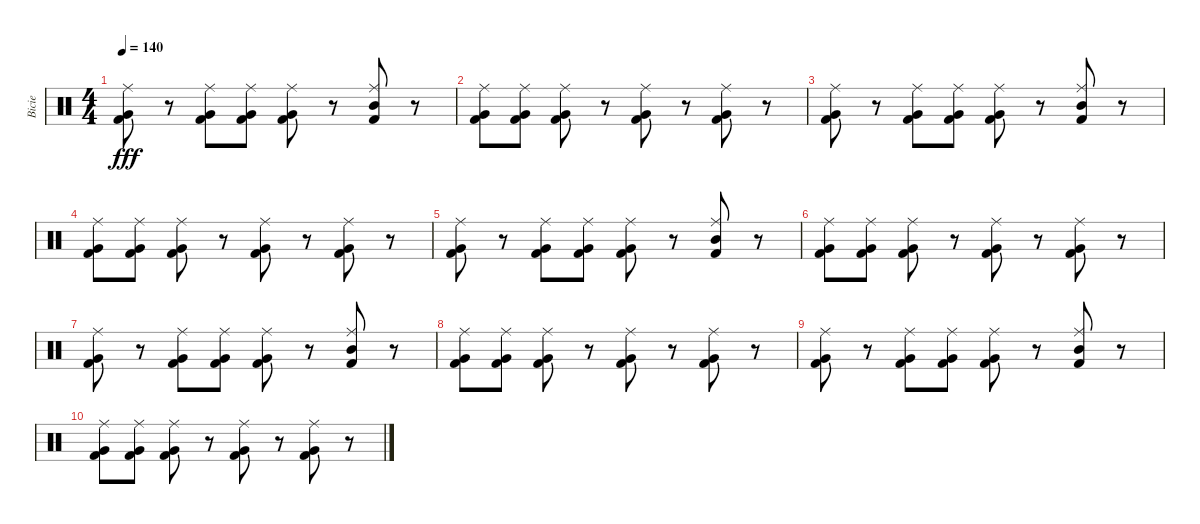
\track ("Bicie" "Bicie") {instrument percussion}
\staff {score}
\articulation defaults
\ts (4 4)
\tempo 140
\clef neutral
\ks c
("Very Low Tom (hit)" "Kick (hit) 2" "Ride (middle)").8{dy fff} r.8 ("Very Low Tom (hit)" "Kick (hit) 2" "Ride (middle)").8 ("Very Low Tom (hit)" "Kick (hit) 2" "Ride (middle)").8 ("Very Low Tom (hit)" "Kick (hit) 2" "Ride (middle)").8 r.8 ("Mid Tom (hit)" "Kick (hit) 2" "Ride (middle)").8 r.8 |
("Very Low Tom (hit)" "Kick (hit) 2" "Ride (middle)").8 ("Very Low Tom (hit)" "Kick (hit) 2" "Ride (middle)").8 ("Very Low Tom (hit)" "Kick (hit) 2" "Ride (middle)").8 r.8 ("Very Low Tom (hit)" "Kick (hit) 2" "Ride (middle)").8 r.8 ("Very Low Tom (hit)" "Kick (hit) 2" "Ride (middle)").8 r.8 |
("Very Low Tom (hit)" "Kick (hit) 2" "Ride (middle)").8 r.8 ("Very Low Tom (hit)" "Kick (hit) 2" "Ride (middle)").8 ("Very Low Tom (hit)" "Kick (hit) 2" "Ride (middle)").8 ("Very Low Tom (hit)" "Kick (hit) 2" "Ride (middle)").8 r.8 ("Mid Tom (hit)" "Kick (hit) 2" "Ride (middle)").8 r.8 |
("Very Low Tom (hit)" "Kick (hit) 2" "Ride (middle)").8 ("Very Low Tom (hit)" "Kick (hit) 2" "Ride (middle)").8 ("Very Low Tom (hit)" "Kick (hit) 2" "Ride (middle)").8 r.8 ("Very Low Tom (hit)" "Kick (hit) 2" "Ride (middle)").8 r.8 ("Very Low Tom (hit)" "Kick (hit) 2" "Ride (middle)").8 r.8 |
("Very Low Tom (hit)" "Kick (hit) 2" "Ride (middle)").8 r.8 ("Very Low Tom (hit)" "Kick (hit) 2" "Ride (middle)").8 ("Very Low Tom (hit)" "Kick (hit) 2" "Ride (middle)").8 ("Very Low Tom (hit)" "Kick (hit) 2" "Ride (middle)").8 r.8 ("Mid Tom (hit)" "Kick (hit) 2" "Ride (middle)").8 r.8 |
("Very Low Tom (hit)" "Kick (hit) 2" "Ride (middle)").8 ("Very Low Tom (hit)" "Kick (hit) 2" "Ride (middle)").8 ("Very Low Tom (hit)" "Kick (hit) 2" "Ride (middle)").8 r.8 ("Very Low Tom (hit)" "Kick (hit) 2" "Ride (middle)").8 r.8 ("Very Low Tom (hit)" "Kick (hit) 2" "Ride (middle)").8 r.8 |
("Very Low Tom (hit)" "Kick (hit) 2" "Ride (middle)").8 r.8 ("Very Low Tom (hit)" "Kick (hit) 2" "Ride (middle)").8 ("Very Low Tom (hit)" "Kick (hit) 2" "Ride (middle)").8 ("Very Low Tom (hit)" "Kick (hit) 2" "Ride (middle)").8 r.8 ("Mid Tom (hit)" "Kick (hit) 2" "Ride (middle)").8 r.8 |
("Very Low Tom (hit)" "Kick (hit) 2" "Ride (middle)").8 ("Very Low Tom (hit)" "Kick (hit) 2" "Ride (middle)").8 ("Very Low Tom (hit)" "Kick (hit) 2" "Ride (middle)").8 r.8 ("Very Low Tom (hit)" "Kick (hit) 2" "Ride (middle)").8 r.8 ("Very Low Tom (hit)" "Kick (hit) 2" "Ride (middle)").8 r.8 |
("Very Low Tom (hit)" "Kick (hit) 2" "Ride (middle)").8 r.8 ("Very Low Tom (hit)" "Kick (hit) 2" "Ride (middle)").8 ("Very Low Tom (hit)" "Kick (hit) 2" "Ride (middle)").8 ("Very Low Tom (hit)" "Kick (hit) 2" "Ride (middle)").8 r.8 ("Mid Tom (hit)" "Kick (hit) 2" "Ride (middle)").8 r.8 |
("Very Low Tom (hit)" "Kick (hit) 2" "Ride (middle)").8 ("Very Low Tom (hit)" "Kick (hit) 2" "Ride (middle)").8 ("Very Low Tom (hit)" "Kick (hit) 2" "Ride (middle)").8 r.8 ("Very Low Tom (hit)" "Kick (hit) 2" "Ride (middle)").8 r.8 ("Very Low Tom (hit)" "Kick (hit) 2" "Ride (middle)").8 r.8
